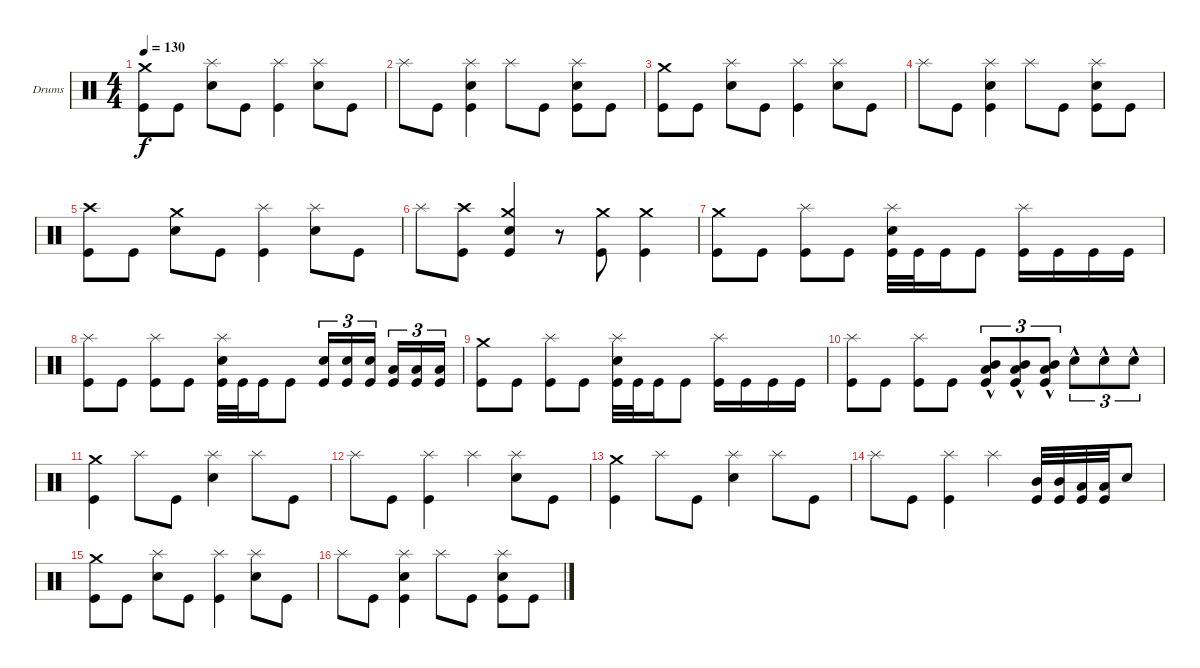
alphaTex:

\defaultSystemsLayout 4
\bracketExtendMode groupsimilarinstruments
\firstSystemTrackNameOrientation horizontal
\otherSystemsTrackNameOrientation horizontal
\track ("Drumkit" "Drums") {instrument percussion}
\staff {score}
\articulation defaults
\ts (4 4)
\tempo 130
\clef neutral
\scale
0.333333
\ks c
("Kick (hit)" "Crash medium (hit)").8{dy f} "Kick (hit)".8 ("Snare (hit) 2" "Splash (hit)").8 "Kick (hit)".8 ("Kick (hit)" "Splash (hit)").4 ("Snare (hit) 2" "Splash (hit)").8 "Kick (hit)".8 |
\scale
0.333333 "Splash (hit)".8 "Kick (hit)".8 ("Kick (hit)" "Snare (hit) 2" "Splash (hit)").4 "Splash (hit)".8 "Kick (hit)".8 ("Kick (hit)" "Snare (hit) 2" "Splash (hit)").8 "Kick (hit)".8 |
\scale
0.333333 ("Kick (hit)" "Crash medium (hit)").8 "Kick (hit)".8 ("Snare (hit) 2" "Splash (hit)").8 "Kick (hit)".8 ("Kick (hit)" "Splash (hit)").4 ("Snare (hit) 2" "Splash (hit)").8 "Kick (hit)".8 |
\scale
0.333333 "Splash (hit)".8 "Kick (hit)".8 ("Kick (hit)" "Snare (hit) 2" "Splash (hit)").4 "Splash (hit)".8 "Kick (hit)".8 ("Kick (hit)" "Snare (hit) 2" "Splash (hit)").8 "Kick (hit)".8 |
\scale
0.333333 ("Kick (hit)" "Crash high (hit)").8 "Kick (hit)".8 ("Snare (hit) 2" "Crash medium (hit)").8 "Kick (hit)".8 ("Kick (hit)" "Splash (hit)").4 ("Snare (hit) 2" "Splash (hit)").8 "Kick (hit)".8 |
\scale
0.333333 "Splash (hit)".8 ("Kick (hit)" "Crash high (hit)").8 ("Kick (hit)" "Snare (hit) 2" "Crash medium (hit)").4 r.8 ("Kick (hit)" "Crash medium (hit)").8 ("Kick (hit)" "Crash medium (hit)").4 |
\scale
0.333333 ("Kick (hit)" "Crash medium (hit)").8 "Kick (hit)".8 ("Kick (hit)" "Splash (hit)").8 "Kick (hit)".8 ("Kick (hit)" "Snare (hit) 2" "Splash (hit)").32 "Kick (hit)".32 "Kick (hit)".16 "Kick (hit)".8 ("Kick (hit)" "Splash (hit)").16 "Kick (hit)".16 "Kick (hit)".16 "Kick (hit)".16 |
\scale
0.333333 ("Kick (hit)" "Splash (hit)").8 "Kick (hit)".8 ("Kick (hit)" "Splash (hit)").8 "Kick (hit)".8 ("Kick (hit)" "Snare (hit) 2" "Splash (hit)").32 "Kick (hit)".32 "Kick (hit)".16 "Kick (hit)".8 ("Snare (hit) 2" "Kick (hit)").16{tu (3 2)} ("Snare (hit) 2" "Kick (hit)").16{tu (3 2)} ("Snare (hit) 2" "Kick (hit)").16{tu (3 2)} ("Low Tom (hit)" "Kick (hit)").16{tu (3 2)} ("Low Tom (hit)" "Kick (hit)").16{tu (3 2)} ("Low Tom (hit)" "Kick (hit)").16{tu (3 2)} |
\scale
0.333333 ("Kick (hit)" "Crash medium (hit)").8 "Kick (hit)".8 ("Kick (hit)" "Splash (hit)").8 "Kick (hit)".8 ("Kick (hit)" "Snare (hit) 2" "Splash (hit)").32 "Kick (hit)".32 "Kick (hit)".16 "Kick (hit)".8 ("Kick (hit)" "Splash (hit)").16 "Kick (hit)".16 "Kick (hit)".16 "Kick (hit)".16 |
\scale
0.333333 ("Kick (hit)" "Splash (hit)").8 "Kick (hit)".8 ("Kick (hit)" "Splash (hit)").8 "Kick (hit)".8 ("Kick (hit)"{hac} "Low Tom (hit)"{hac} "Mid Tom (hit)"{hac}).8{tu (3 2)} ("Kick (hit)"{hac} "Low Tom (hit)"{hac} "Mid Tom (hit)"{hac}).8{tu (3 2)} ("Kick (hit)"{hac} "Low Tom (hit)"{hac} "Mid Tom (hit)"{hac}).8{tu (3 2)} "Snare (hit) 2"{hac}.8{tu (3 2)} "Snare (hit) 2"{hac}.8{tu (3 2)} "Snare (hit) 2"{hac}.8{tu (3 2)} |
\scale
0.333333 ("Kick (hit)" "Crash medium (hit)").4 "Splash (hit)".8 "Kick (hit)".8 ("Splash (hit)" "Snare (hit) 2").4 "Splash (hit)".8 "Kick (hit)".8 |
\scale
0.333333 "Splash (hit)".8 "Kick (hit)".8 ("Kick (hit)" "Splash (hit)").4 "Splash (hit)".4 ("Snare (hit) 2" "Splash (hit)").8 "Kick (hit)".8 |
\scale
0.333333 ("Kick (hit)" "Crash medium (hit)").4 "Splash (hit)".8 "Kick (hit)".8 ("Splash (hit)" "Snare (hit) 2").4 "Splash (hit)".8 "Kick (hit)".8 |
\scale
0.333333 "Splash (hit)".8 "Kick (hit)".8 ("Kick (hit)" "Splash (hit)").4 "Splash (hit)".4 ("Kick (hit)" "Mid Tom (hit)").32 ("Kick (hit)" "Mid Tom (hit)").32 ("Kick (hit)" "Low Tom (hit)").32 ("Kick (hit)" "Low Tom (hit)").32 "Snare (hit) 2".8 |
\scale
0.333333 ("Kick (hit)" "Crash medium (hit)").8 "Kick (hit)".8 ("Snare (hit) 2" "Splash (hit)").8 "Kick (hit)".8 ("Kick (hit)" "Splash (hit)").4 ("Snare (hit) 2" "Splash (hit)").8 "Kick (hit)".8 |
\scale
0.333333 "Splash (hit)".8 "Kick (hit)".8 ("Kick (hit)" "Snare (hit) 2" "Splash (hit)").4 "Splash (hit)".8 "Kick (hit)".8 ("Kick (hit)" "Snare (hit) 2" "Splash (hit)").8 "Kick (hit)".8
